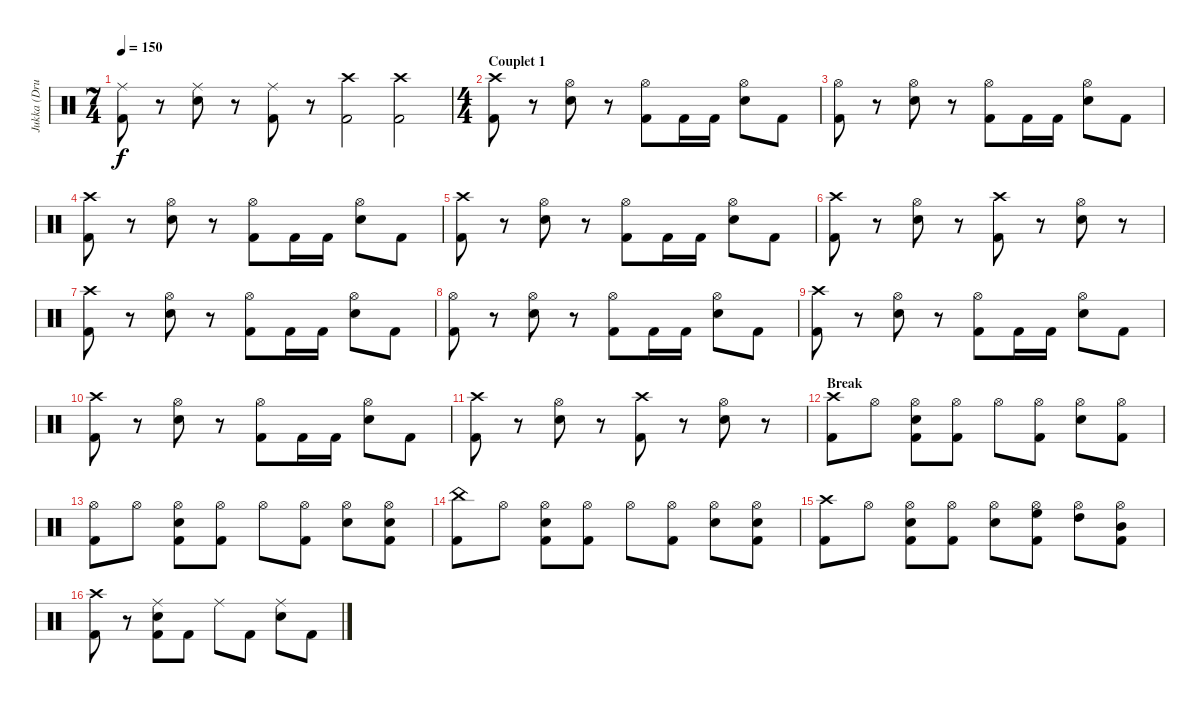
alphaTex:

\track ("Jukka (Drums)" "Jukka (Dru") {instrument percussion}
\staff {score}
\articulation defaults
\ts (7 4)
\tempo 150
\clef neutral
\ks c
("Ride (middle)" "Kick (hit) 2").8{dy f} r.8 ("Electric Snare (hit)" "Ride (middle)").8 r.8 ("Kick (hit) 2" "Ride (middle)").8 r.8 ("Kick (hit) 2" "Crash high (hit)").2 ("Kick (hit) 2" "Crash high (hit)").2 |
\ts (4 4)
\section ("" "Couplet 1")
("Kick (hit) 2" "Crash high (hit)").8 r.8 ("Electric Snare (hit)" "Hi-Hat (open)").8 r.8 ("Hi-Hat (open)" "Kick (hit) 2").8 "Kick (hit) 2".16 "Kick (hit) 2".16 ("Electric Snare (hit)" "Hi-Hat (open)").8 "Kick (hit) 2".8 |
("Kick (hit) 2" "Hi-Hat (open)").8 r.8 ("Hi-Hat (open)" "Electric Snare (hit)").8 r.8 ("Kick (hit) 2" "Hi-Hat (open)").8 "Kick (hit) 2".16 "Kick (hit) 2".16 ("Electric Snare (hit)" "Hi-Hat (open)").8 "Kick (hit) 2".8 |
("Kick (hit) 2" "Crash high (hit)").8 r.8 ("Hi-Hat (open)" "Electric Snare (hit)").8 r.8 ("Kick (hit) 2" "Hi-Hat (open)").8 "Kick (hit) 2".16 "Kick (hit) 2".16 ("Hi-Hat (open)" "Electric Snare (hit)").8 "Kick (hit) 2".8 |
("Crash high (hit)" "Kick (hit) 2").8 r.8 ("Electric Snare (hit)" "Hi-Hat (open)").8 r.8 ("Kick (hit) 2" "Hi-Hat (open)").8 "Kick (hit) 2".16 "Kick (hit) 2".16 ("Hi-Hat (open)" "Electric Snare (hit)").8 "Kick (hit) 2".8 |
("Crash high (hit)" "Kick (hit) 2").8 r.8 ("Electric Snare (hit)" "Hi-Hat (open)").8 r.8 ("Crash high (hit)" "Kick (hit) 2").8 r.8 ("Electric Snare (hit)" "Hi-Hat (open)").8 r.8 |
("Kick (hit) 2" "Crash high (hit)").8 r.8 ("Electric Snare (hit)" "Hi-Hat (open)").8 r.8 ("Hi-Hat (open)" "Kick (hit) 2").8 "Kick (hit) 2".16 "Kick (hit) 2".16 ("Electric Snare (hit)" "Hi-Hat (open)").8 "Kick (hit) 2".8 |
("Kick (hit) 2" "Hi-Hat (open)").8 r.8 ("Hi-Hat (open)" "Electric Snare (hit)").8 r.8 ("Kick (hit) 2" "Hi-Hat (open)").8 "Kick (hit) 2".16 "Kick (hit) 2".16 ("Electric Snare (hit)" "Hi-Hat (open)").8 "Kick (hit) 2".8 |
("Kick (hit) 2" "Crash high (hit)").8 r.8 ("Hi-Hat (open)" "Electric Snare (hit)").8 r.8 ("Kick (hit) 2" "Hi-Hat (open)").8 "Kick (hit) 2".16 "Kick (hit) 2".16 ("Hi-Hat (open)" "Electric Snare (hit)").8 "Kick (hit) 2".8 |
("Crash high (hit)" "Kick (hit) 2").8 r.8 ("Electric Snare (hit)" "Hi-Hat (open)").8 r.8 ("Kick (hit) 2" "Hi-Hat (open)").8 "Kick (hit) 2".16 "Kick (hit) 2".16 ("Hi-Hat (open)" "Electric Snare (hit)").8 "Kick (hit) 2".8 |
("Crash high (hit)" "Kick (hit) 2").8 r.8 ("Electric Snare (hit)" "Hi-Hat (open)").8 r.8 ("Crash high (hit)" "Kick (hit) 2").8 r.8 ("Electric Snare (hit)" "Hi-Hat (open)").8 r.8 |
\section ("" "Break")
("Kick (hit) 2" "Crash high (hit)").8 "Hi-Hat (open)".8 ("Kick (hit) 2" "Hi-Hat (open)" "Electric Snare (hit)").8 ("Kick (hit) 2" "Hi-Hat (open)").8 "Hi-Hat (open)".8 ("Kick (hit) 2" "Hi-Hat (open)").8 ("Hi-Hat (open)" "Electric Snare (hit)").8 ("Kick (hit) 2" "Hi-Hat (open)").8 |
("Kick (hit) 2" "Hi-Hat (open)").8 "Hi-Hat (open)".8 ("Kick (hit) 2" "Hi-Hat (open)" "Electric Snare (hit)").8 ("Kick (hit) 2" "Hi-Hat (open)").8 "Hi-Hat (open)".8 ("Kick (hit) 2" "Hi-Hat (open)").8 ("Hi-Hat (open)" "Electric Snare (hit)").8 ("Kick (hit) 2" "Hi-Hat (open)" "Electric Snare (hit)").8 |
("Kick (hit) 2" "China (hit)").8 "Hi-Hat (open)".8 ("Kick (hit) 2" "Hi-Hat (open)" "Electric Snare (hit)").8 ("Kick (hit) 2" "Hi-Hat (open)").8 "Hi-Hat (open)".8 ("Kick (hit) 2" "Hi-Hat (open)").8 ("Hi-Hat (open)" "Electric Snare (hit)").8 ("Kick (hit) 2" "Hi-Hat (open)" "Electric Snare (hit)").8 |
("Kick (hit) 2" "Crash high (hit)").8 "Hi-Hat (open)".8 ("Kick (hit) 2" "Hi-Hat (open)" "Electric Snare (hit)").8 ("Kick (hit) 2" "Hi-Hat (open)").8 ("Hi-Hat (open)" "Electric Snare (hit)").8 ("Kick (hit) 2" "Hi-Hat (open)" "High Floor Tom (hit)").8 ("Hi-Hat (open)" "High Tom (hit)").8 ("Kick (hit) 2" "Hi-Hat (open)" "Mid Tom (hit)").8 |
("Kick (hit) 2" "Crash high (hit)").8 r.8 ("Kick (hit) 2" "Ride (middle)" "Electric Snare (hit)").8 "Kick (hit) 2".8 "Ride (middle)".8 "Kick (hit) 2".8 ("Ride (middle)" "Electric Snare (hit)").8 "Kick (hit) 2".8
